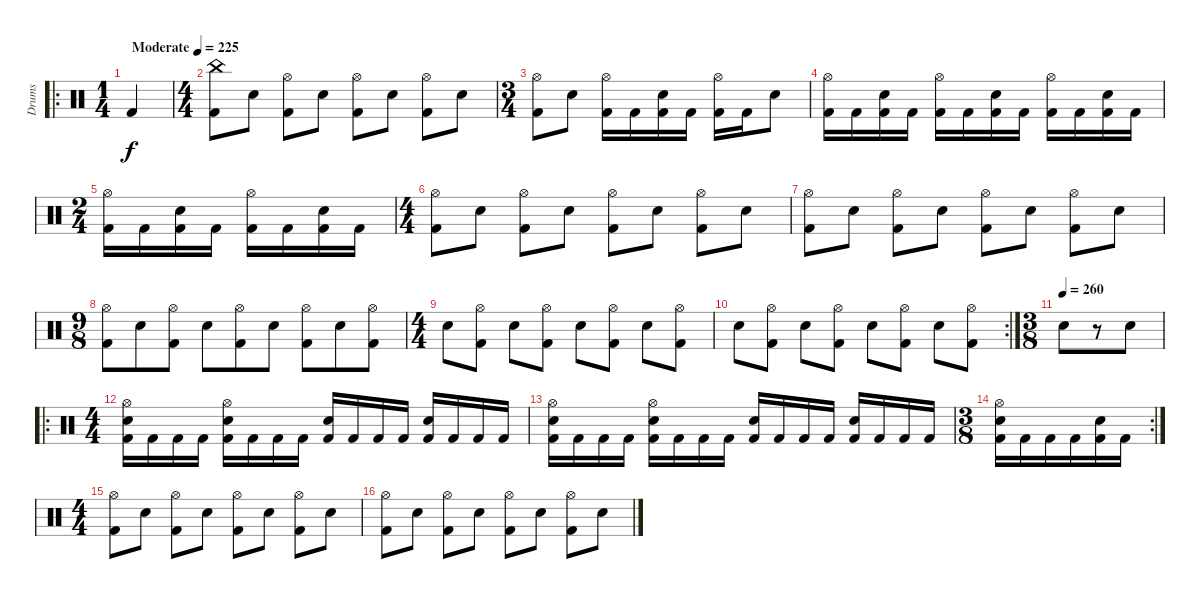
\track ("Drums" "Drums") {instrument percussion}
\staff {score}
\articulation defaults
\ro
\ts (1 4)
\tempo (225 "Moderate")
\clef neutral
\ks c "Kick (hit) 2".4{dy f}
|
\ts (4 4)
("China (hit)" "Kick (hit) 2").8 "Electric Snare (hit)".8 ("Hi-Hat (open)" "Kick (hit) 2").8 "Electric Snare (hit)".8 ("Hi-Hat (open)" "Kick (hit) 2").8 "Electric Snare (hit)".8 ("Hi-Hat (open)" "Kick (hit) 2").8 "Electric Snare (hit)".8 |
\ts (3 4)
("Hi-Hat (open)" "Kick (hit) 2").8 "Electric Snare (hit)".8 ("Hi-Hat (open)" "Kick (hit) 2").16 "Kick (hit) 2".16 ("Electric Snare (hit)" "Kick (hit) 2").16 "Kick (hit) 2".16 ("Hi-Hat (open)" "Kick (hit) 2").16 "Kick (hit) 2".16 "Electric Snare (hit)".8 |
("Hi-Hat (open)" "Kick (hit) 2").16 "Kick (hit) 2".16 ("Electric Snare (hit)" "Kick (hit) 2").16 "Kick (hit) 2".16 ("Hi-Hat (open)" "Kick (hit) 2").16 "Kick (hit) 2".16 ("Electric Snare (hit)" "Kick (hit) 2").16 "Kick (hit) 2".16 ("Hi-Hat (open)" "Kick (hit) 2").16 "Kick (hit) 2".16 ("Electric Snare (hit)" "Kick (hit) 2").16 "Kick (hit) 2".16 |
\ts (2 4)
("Hi-Hat (open)" "Kick (hit) 2").16 "Kick (hit) 2".16 ("Electric Snare (hit)" "Kick (hit) 2").16 "Kick (hit) 2".16 ("Hi-Hat (open)" "Kick (hit) 2").16 "Kick (hit) 2".16 ("Electric Snare (hit)" "Kick (hit) 2").16 "Kick (hit) 2".16 |
\ts (4 4)
("Hi-Hat (open)" "Kick (hit) 2").8 "Electric Snare (hit)".8 ("Hi-Hat (open)" "Kick (hit) 2").8 "Electric Snare (hit)".8 ("Hi-Hat (open)" "Kick (hit) 2").8 "Electric Snare (hit)".8 ("Hi-Hat (open)" "Kick (hit) 2").8 "Electric Snare (hit)".8 |
("Hi-Hat (open)" "Kick (hit) 2").8 "Electric Snare (hit)".8 ("Hi-Hat (open)" "Kick (hit) 2").8 "Electric Snare (hit)".8 ("Hi-Hat (open)" "Kick (hit) 2").8 "Electric Snare (hit)".8 ("Hi-Hat (open)" "Kick (hit) 2").8 "Electric Snare (hit)".8 |
\ts (9 8)
("Hi-Hat (open)" "Kick (hit) 2").8 "Electric Snare (hit)".8 ("Hi-Hat (open)" "Kick (hit) 2").8 "Electric Snare (hit)".8 ("Hi-Hat (open)" "Kick (hit) 2").8 "Electric Snare (hit)".8 ("Hi-Hat (open)" "Kick (hit) 2").8 "Electric Snare (hit)".8 ("Hi-Hat (open)" "Kick (hit) 2").8 |
\ts (4 4)
"Electric Snare (hit)".8 ("Hi-Hat (open)" "Kick (hit) 2").8 "Electric Snare (hit)".8 ("Hi-Hat (open)" "Kick (hit) 2").8 "Electric Snare (hit)".8 ("Hi-Hat (open)" "Kick (hit) 2").8 "Electric Snare (hit)".8 ("Hi-Hat (open)" "Kick (hit) 2").8 |
\rc 2 "Electric Snare (hit)".8
("Hi-Hat (open)" "Kick (hit) 2").8 "Electric Snare (hit)".8 ("Hi-Hat (open)" "Kick (hit) 2").8 "Electric Snare (hit)".8 ("Hi-Hat (open)" "Kick (hit) 2").8 "Electric Snare (hit)".8 ("Hi-Hat (open)" "Kick (hit) 2").8 |
\ts (3 8)
\tempo (260)
"Electric Snare (hit)".8 r.8 "Electric Snare (hit)".8 |
\ro
\ts (4 4)
("Hi-Hat (open)" "Electric Snare (hit)" "Kick (hit) 2").16 "Kick (hit) 2".16 "Kick (hit) 2".16 "Kick (hit) 2".16 ("Hi-Hat (open)" "Electric Snare (hit)" "Kick (hit) 2").16 "Kick (hit) 2".16 "Kick (hit) 2".16 "Kick (hit) 2".16 ("Electric Snare (hit)" "Kick (hit) 2").16 "Kick (hit) 2".16 "Kick (hit) 2".16 "Kick (hit) 2".16 ("Electric Snare (hit)" "Kick (hit) 2").16 "Kick (hit) 2".16 "Kick (hit) 2".16 "Kick (hit) 2".16 |
("Hi-Hat (open)" "Electric Snare (hit)" "Kick (hit) 2").16 "Kick (hit) 2".16 "Kick (hit) 2".16 "Kick (hit) 2".16 ("Hi-Hat (open)" "Electric Snare (hit)" "Kick (hit) 2").16 "Kick (hit) 2".16 "Kick (hit) 2".16 "Kick (hit) 2".16 ("Electric Snare (hit)" "Kick (hit) 2").16 "Kick (hit) 2".16 "Kick (hit) 2".16 "Kick (hit) 2".16 ("Electric Snare (hit)" "Kick (hit) 2").16 "Kick (hit) 2".16 "Kick (hit) 2".16 "Kick (hit) 2".16 |
\rc 2
\ts (3 8)
("Hi-Hat (open)" "Electric Snare (hit)" "Kick (hit) 2").16 "Kick (hit) 2".16 "Kick (hit) 2".16 "Kick (hit) 2".16 ("Electric Snare (hit)" "Kick (hit) 2").16 "Kick (hit) 2".16 |
\ts (4 4)
("Hi-Hat (open)" "Kick (hit) 2").8 "Electric Snare (hit)".8 ("Hi-Hat (open)" "Kick (hit) 2").8 "Electric Snare (hit)".8 ("Hi-Hat (open)" "Kick (hit) 2").8 "Electric Snare (hit)".8 ("Hi-Hat (open)" "Kick (hit) 2").8 "Electric Snare (hit)".8 |
("Hi-Hat (open)" "Kick (hit) 2").8 "Electric Snare (hit)".8 ("Hi-Hat (open)" "Kick (hit) 2").8 "Electric Snare (hit)".8 ("Hi-Hat (open)" "Kick (hit) 2").8 "Electric Snare (hit)".8 ("Hi-Hat (open)" "Kick (hit) 2").8 "Electric Snare (hit)".8
